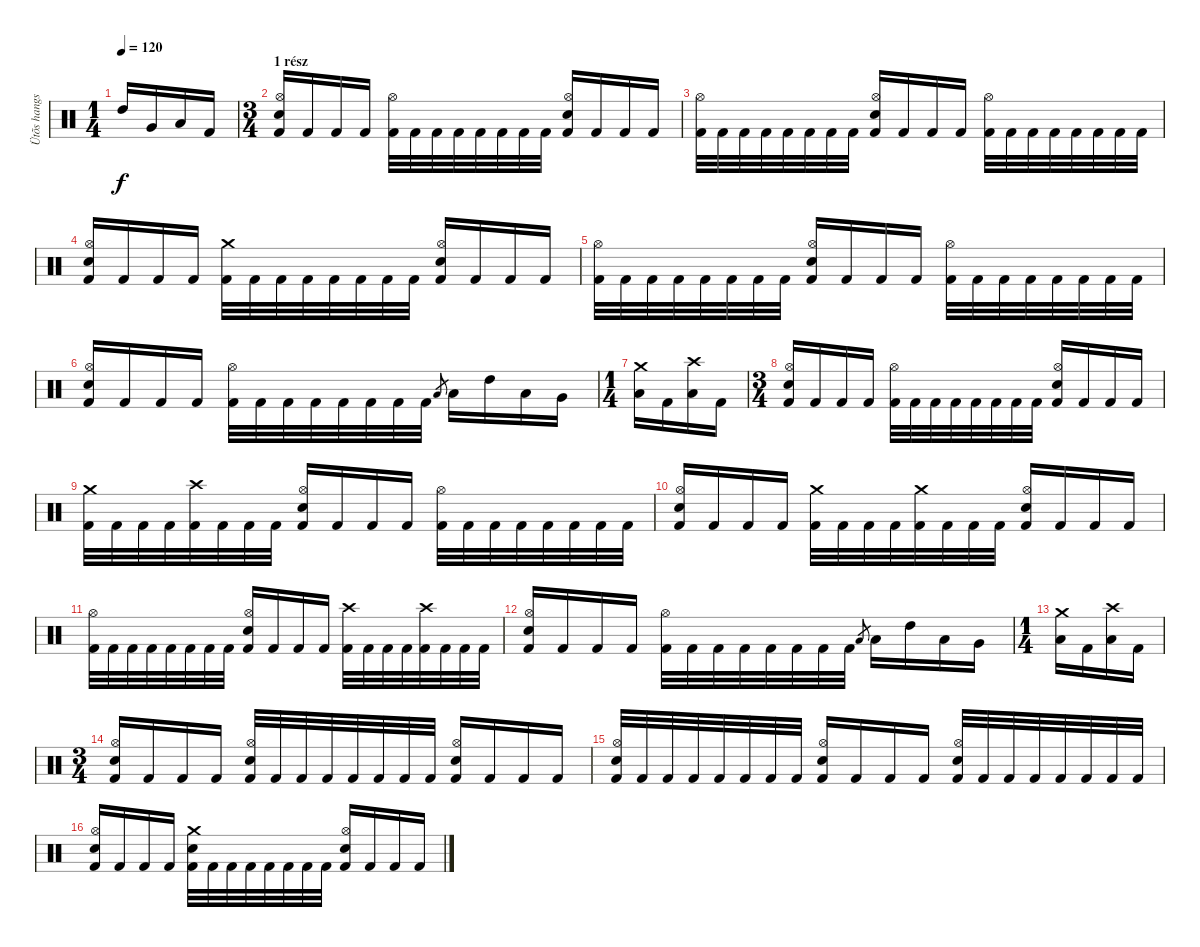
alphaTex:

\track ("Ütõs hangszer" "Ütõs hangs") {instrument percussion}
\staff {score}
\articulation defaults
\ts (1 4)
\tempo 120
\clef neutral
\ks c "High Tom (hit)".16{dy f} "Very Low Tom (hit)".16 "Low Floor Tom (hit)".16 "Kick (hit) 2".16
|
\ts (3 4)
\section ("" "1 rész")
("Hi-Hat (open)" "Electric Snare (hit)" "Kick (hit) 2").16 "Kick (hit) 2".16 "Kick (hit) 2".16 "Kick (hit) 2".16 ("Hi-Hat (open)" "Kick (hit) 2").32 "Kick (hit) 2".32 "Kick (hit) 2".32 "Kick (hit) 2".32 "Kick (hit) 2".32 "Kick (hit) 2".32 "Kick (hit) 2".32 "Kick (hit) 2".32 ("Hi-Hat (open)" "Electric Snare (hit)" "Kick (hit) 2").16 "Kick (hit) 2".16 "Kick (hit) 2".16 "Kick (hit) 2".16 |
("Hi-Hat (open)" "Kick (hit) 2").32 "Kick (hit) 2".32 "Kick (hit) 2".32 "Kick (hit) 2".32 "Kick (hit) 2".32 "Kick (hit) 2".32 "Kick (hit) 2".32 "Kick (hit) 2".32 ("Hi-Hat (open)" "Electric Snare (hit)" "Kick (hit) 2").16 "Kick (hit) 2".16 "Kick (hit) 2".16 "Kick (hit) 2".16 ("Hi-Hat (open)" "Kick (hit) 2").32 "Kick (hit) 2".32 "Kick (hit) 2".32 "Kick (hit) 2".32 "Kick (hit) 2".32 "Kick (hit) 2".32 "Kick (hit) 2".32 "Kick (hit) 2".32 |
("Hi-Hat (open)" "Electric Snare (hit)" "Kick (hit) 2").16 "Kick (hit) 2".16 "Kick (hit) 2".16 "Kick (hit) 2".16 ("Crash medium (hit)" "Kick (hit) 2").32 "Kick (hit) 2".32 "Kick (hit) 2".32 "Kick (hit) 2".32 "Kick (hit) 2".32 "Kick (hit) 2".32 "Kick (hit) 2".32 "Kick (hit) 2".32 ("Hi-Hat (open)" "Electric Snare (hit)" "Kick (hit) 2").16 "Kick (hit) 2".16 "Kick (hit) 2".16 "Kick (hit) 2".16 |
("Hi-Hat (open)" "Kick (hit) 2").32 "Kick (hit) 2".32 "Kick (hit) 2".32 "Kick (hit) 2".32 "Kick (hit) 2".32 "Kick (hit) 2".32 "Kick (hit) 2".32 "Kick (hit) 2".32 ("Hi-Hat (open)" "Electric Snare (hit)" "Kick (hit) 2").16 "Kick (hit) 2".16 "Kick (hit) 2".16 "Kick (hit) 2".16 ("Hi-Hat (open)" "Kick (hit) 2").32 "Kick (hit) 2".32 "Kick (hit) 2".32 "Kick (hit) 2".32 "Kick (hit) 2".32 "Kick (hit) 2".32 "Kick (hit) 2".32 "Kick (hit) 2".32 |
("Hi-Hat (open)" "Electric Snare (hit)" "Kick (hit) 2").16 "Kick (hit) 2".16 "Kick (hit) 2".16 "Kick (hit) 2".16 ("Hi-Hat (open)" "Kick (hit) 2").32 "Kick (hit) 2".32 "Kick (hit) 2".32 "Kick (hit) 2".32 "Kick (hit) 2".32 "Kick (hit) 2".32 "Kick (hit) 2".32 "Kick (hit) 2".32 "Low Tom (hit)".8{gr} "Low Tom (hit)".16 "High Tom (hit)".16 "Low Tom (hit)".16 "Very Low Tom (hit)".16 |
\ts (1 4)
("Crash medium (hit)" "Low Floor Tom (hit)").16 "Kick (hit) 2".16 ("Crash high (hit)" "Low Floor Tom (hit)").16 "Kick (hit) 2".16 |
\ts (3 4)
("Hi-Hat (open)" "Electric Snare (hit)" "Kick (hit) 2").16 "Kick (hit) 2".16 "Kick (hit) 2".16 "Kick (hit) 2".16 ("Hi-Hat (open)" "Kick (hit) 2").32 "Kick (hit) 2".32 "Kick (hit) 2".32 "Kick (hit) 2".32 "Kick (hit) 2".32 "Kick (hit) 2".32 "Kick (hit) 2".32 "Kick (hit) 2".32 ("Hi-Hat (open)" "Electric Snare (hit)" "Kick (hit) 2").16 "Kick (hit) 2".16 "Kick (hit) 2".16 "Kick (hit) 2".16 |
("Crash medium (hit)" "Kick (hit) 2").32 "Kick (hit) 2".32 "Kick (hit) 2".32 "Kick (hit) 2".32 ("Crash high (hit)" "Kick (hit) 2").32 "Kick (hit) 2".32 "Kick (hit) 2".32 "Kick (hit) 2".32 ("Hi-Hat (open)" "Electric Snare (hit)" "Kick (hit) 2").16 "Kick (hit) 2".16 "Kick (hit) 2".16 "Kick (hit) 2".16 ("Hi-Hat (open)" "Kick (hit) 2").32 "Kick (hit) 2".32 "Kick (hit) 2".32 "Kick (hit) 2".32 "Kick (hit) 2".32 "Kick (hit) 2".32 "Kick (hit) 2".32 "Kick (hit) 2".32 |
("Hi-Hat (open)" "Electric Snare (hit)" "Kick (hit) 2").16 "Kick (hit) 2".16 "Kick (hit) 2".16 "Kick (hit) 2".16 ("Crash medium (hit)" "Kick (hit) 2").32 "Kick (hit) 2".32 "Kick (hit) 2".32 "Kick (hit) 2".32 ("Crash medium (hit)" "Kick (hit) 2").32 "Kick (hit) 2".32 "Kick (hit) 2".32 "Kick (hit) 2".32 ("Hi-Hat (open)" "Electric Snare (hit)" "Kick (hit) 2").16 "Kick (hit) 2".16 "Kick (hit) 2".16 "Kick (hit) 2".16 |
("Hi-Hat (open)" "Kick (hit) 2").32 "Kick (hit) 2".32 "Kick (hit) 2".32 "Kick (hit) 2".32 "Kick (hit) 2".32 "Kick (hit) 2".32 "Kick (hit) 2".32 "Kick (hit) 2".32 ("Hi-Hat (open)" "Electric Snare (hit)" "Kick (hit) 2").16 "Kick (hit) 2".16 "Kick (hit) 2".16 "Kick (hit) 2".16 ("Crash high (hit)" "Kick (hit) 2").32 "Kick (hit) 2".32 "Kick (hit) 2".32 "Kick (hit) 2".32 ("Crash high (hit)" "Kick (hit) 2").32 "Kick (hit) 2".32 "Kick (hit) 2".32 "Kick (hit) 2".32 |
("Hi-Hat (open)" "Electric Snare (hit)" "Kick (hit) 2").16 "Kick (hit) 2".16 "Kick (hit) 2".16 "Kick (hit) 2".16 ("Hi-Hat (open)" "Kick (hit) 2").32 "Kick (hit) 2".32 "Kick (hit) 2".32 "Kick (hit) 2".32 "Kick (hit) 2".32 "Kick (hit) 2".32 "Kick (hit) 2".32 "Kick (hit) 2".32 "Low Tom (hit)".8{gr} "Low Tom (hit)".16 "High Tom (hit)".16 "Low Tom (hit)".16 "Very Low Tom (hit)".16 |
\ts (1 4)
("Crash medium (hit)" "Low Floor Tom (hit)").16 "Kick (hit) 2".16 ("Crash high (hit)" "Low Floor Tom (hit)").16 "Kick (hit) 2".16 |
\ts (3 4)
("Hi-Hat (open)" "Electric Snare (hit)" "Kick (hit) 2").16 "Kick (hit) 2".16 "Kick (hit) 2".16 "Kick (hit) 2".16 ("Hi-Hat (open)" "Electric Snare (hit)" "Kick (hit) 2").32 "Kick (hit) 2".32 "Kick (hit) 2".32 "Kick (hit) 2".32 "Kick (hit) 2".32 "Kick (hit) 2".32 "Kick (hit) 2".32 "Kick (hit) 2".32 ("Hi-Hat (open)" "Electric Snare (hit)" "Kick (hit) 2").16 "Kick (hit) 2".16 "Kick (hit) 2".16 "Kick (hit) 2".16 |
("Hi-Hat (open)" "Electric Snare (hit)" "Kick (hit) 2").32 "Kick (hit) 2".32 "Kick (hit) 2".32 "Kick (hit) 2".32 "Kick (hit) 2".32 "Kick (hit) 2".32 "Kick (hit) 2".32 "Kick (hit) 2".32 ("Hi-Hat (open)" "Electric Snare (hit)" "Kick (hit) 2").16 "Kick (hit) 2".16 "Kick (hit) 2".16 "Kick (hit) 2".16 ("Hi-Hat (open)" "Electric Snare (hit)" "Kick (hit) 2").32 "Kick (hit) 2".32 "Kick (hit) 2".32 "Kick (hit) 2".32 "Kick (hit) 2".32 "Kick (hit) 2".32 "Kick (hit) 2".32 "Kick (hit) 2".32 |
("Hi-Hat (open)" "Electric Snare (hit)" "Kick (hit) 2").16 "Kick (hit) 2".16 "Kick (hit) 2".16 "Kick (hit) 2".16 ("Crash medium (hit)" "Electric Snare (hit)" "Kick (hit) 2").32 "Kick (hit) 2".32 "Kick (hit) 2".32 "Kick (hit) 2".32 "Kick (hit) 2".32 "Kick (hit) 2".32 "Kick (hit) 2".32 "Kick (hit) 2".32 ("Hi-Hat (open)" "Electric Snare (hit)" "Kick (hit) 2").16 "Kick (hit) 2".16 "Kick (hit) 2".16 "Kick (hit) 2".16
